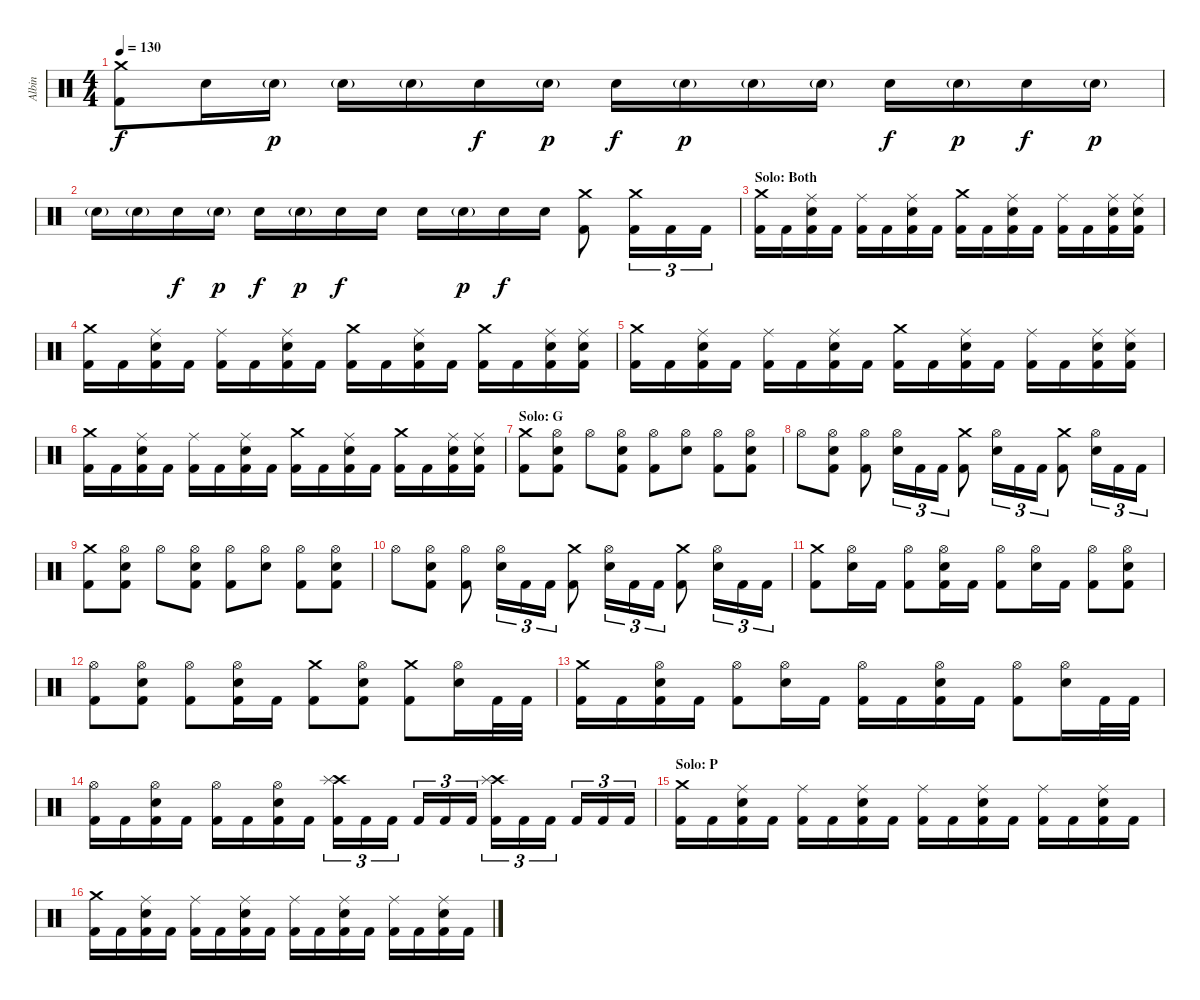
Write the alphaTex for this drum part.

\track ("Albin" "Albin") {instrument percussion}
\staff {score}
\articulation defaults
\ts (4 4)
\tempo 130
\clef neutral
\ks c
("Crash medium (hit)" "Kick (hit) 2").8{dy f} "Electric Snare (hit)".16 "Electric Snare (hit)"{g}.16{dy p} "Electric Snare (hit)"{g}.16 "Electric Snare (hit)"{g}.16 "Electric Snare (hit)".16{dy f} "Electric Snare (hit)"{g}.16{dy p} "Electric Snare (hit)".16{dy f} "Electric Snare (hit)"{g}.16{dy p} "Electric Snare (hit)"{g}.16 "Electric Snare (hit)"{g}.16 "Electric Snare (hit)".16{dy f} "Electric Snare (hit)"{g}.16{dy p} "Electric Snare (hit)".16{dy f} "Electric Snare (hit)"{g}.16{dy p} |
"Electric Snare (hit)"{g}.16 "Electric Snare (hit)"{g}.16 "Electric Snare (hit)".16{dy f} "Electric Snare (hit)"{g}.16{dy p} "Electric Snare (hit)".16{dy f} "Electric Snare (hit)"{g}.16{dy p} "Electric Snare (hit)".16{dy f} "Electric Snare (hit)".16 "Electric Snare (hit)".16 "Electric Snare (hit)"{g}.16{dy p} "Electric Snare (hit)".16{dy f} "Electric Snare (hit)".16 ("Crash medium (hit)" "Kick (hit) 2").8 ("Crash medium (hit)" "Kick (hit) 2").16{tu (3 2)} "Kick (hit) 2".16{tu (3 2)} "Kick (hit) 2".16{tu (3 2)} |
\section ("" "Solo: Both")
("Crash medium (hit)" "Kick (hit) 2").16 "Kick (hit) 2".16 ("Ride (middle)" "Electric Snare (hit)" "Kick (hit) 2").16 "Kick (hit) 2".16 ("Ride (middle)" "Kick (hit) 2").16 "Kick (hit) 2".16 ("Ride (middle)" "Electric Snare (hit)" "Kick (hit) 2").16 "Kick (hit) 2".16 ("Crash medium (hit)" "Kick (hit) 2").16 "Kick (hit) 2".16 ("Ride (middle)" "Electric Snare (hit)" "Kick (hit) 2").16 "Kick (hit) 2".16 ("Ride (middle)" "Kick (hit) 2").16 "Kick (hit) 2".16 ("Ride (middle)" "Electric Snare (hit)" "Kick (hit) 2").16 ("Ride (middle)" "Electric Snare (hit)" "Kick (hit) 2").16 |
("Crash medium (hit)" "Kick (hit) 2").16 "Kick (hit) 2".16 ("Ride (middle)" "Electric Snare (hit)" "Kick (hit) 2").16 "Kick (hit) 2".16 ("Ride (middle)" "Kick (hit) 2").16 "Kick (hit) 2".16 ("Ride (middle)" "Electric Snare (hit)" "Kick (hit) 2").16 "Kick (hit) 2".16 ("Crash medium (hit)" "Kick (hit) 2").16 "Kick (hit) 2".16 ("Ride (middle)" "Electric Snare (hit)" "Kick (hit) 2").16 "Kick (hit) 2".16 ("Crash medium (hit)" "Kick (hit) 2").16 "Kick (hit) 2".16 ("Ride (middle)" "Electric Snare (hit)" "Kick (hit) 2").16 ("Ride (middle)" "Electric Snare (hit)" "Kick (hit) 2").16 |
("Crash medium (hit)" "Kick (hit) 2").16 "Kick (hit) 2".16 ("Ride (middle)" "Electric Snare (hit)" "Kick (hit) 2").16 "Kick (hit) 2".16 ("Ride (middle)" "Kick (hit) 2").16 "Kick (hit) 2".16 ("Ride (middle)" "Electric Snare (hit)" "Kick (hit) 2").16 "Kick (hit) 2".16 ("Crash medium (hit)" "Kick (hit) 2").16 "Kick (hit) 2".16 ("Ride (middle)" "Electric Snare (hit)" "Kick (hit) 2").16 "Kick (hit) 2".16 ("Ride (middle)" "Kick (hit) 2").16 "Kick (hit) 2".16 ("Ride (middle)" "Electric Snare (hit)" "Kick (hit) 2").16 ("Ride (middle)" "Electric Snare (hit)" "Kick (hit) 2").16 |
("Crash medium (hit)" "Kick (hit) 2").16 "Kick (hit) 2".16 ("Ride (middle)" "Electric Snare (hit)" "Kick (hit) 2").16 "Kick (hit) 2".16 ("Ride (middle)" "Kick (hit) 2").16 "Kick (hit) 2".16 ("Ride (middle)" "Electric Snare (hit)" "Kick (hit) 2").16 "Kick (hit) 2".16 ("Crash medium (hit)" "Kick (hit) 2").16 "Kick (hit) 2".16 ("Ride (middle)" "Electric Snare (hit)" "Kick (hit) 2").16 "Kick (hit) 2".16 ("Crash medium (hit)" "Kick (hit) 2").16 "Kick (hit) 2".16 ("Ride (middle)" "Electric Snare (hit)" "Kick (hit) 2").16 ("Ride (middle)" "Electric Snare (hit)" "Kick (hit) 2").16 |
\section ("" "Solo: G")
("Crash medium (hit)" "Kick (hit) 2").8 ("Hi-Hat (open)" "Electric Snare (hit)" "Kick (hit) 2").8 "Hi-Hat (open)".8 ("Hi-Hat (open)" "Electric Snare (hit)" "Kick (hit) 2").8 ("Hi-Hat (open)" "Kick (hit) 2").8 ("Hi-Hat (open)" "Electric Snare (hit)").8 ("Hi-Hat (open)" "Kick (hit) 2").8 ("Hi-Hat (open)" "Electric Snare (hit)" "Kick (hit) 2").8 |
"Hi-Hat (open)".8 ("Hi-Hat (open)" "Electric Snare (hit)" "Kick (hit) 2").8 ("Hi-Hat (open)" "Kick (hit) 2").8 ("Hi-Hat (open)" "Electric Snare (hit)").16{tu (3 2)} "Kick (hit) 2".16{tu (3 2)} "Kick (hit) 2".16{tu (3 2)} ("Crash medium (hit)" "Kick (hit) 2").8 ("Hi-Hat (open)" "Electric Snare (hit)").16{tu (3 2)} "Kick (hit) 2".16{tu (3 2)} "Kick (hit) 2".16{tu (3 2)} ("Crash medium (hit)" "Kick (hit) 2").8 ("Hi-Hat (open)" "Electric Snare (hit)").16{tu (3 2)} "Kick (hit) 2".16{tu (3 2)} "Kick (hit) 2".16{tu (3 2)} |
("Crash medium (hit)" "Kick (hit) 2").8 ("Hi-Hat (open)" "Electric Snare (hit)" "Kick (hit) 2").8 "Hi-Hat (open)".8 ("Hi-Hat (open)" "Electric Snare (hit)" "Kick (hit) 2").8 ("Hi-Hat (open)" "Kick (hit) 2").8 ("Hi-Hat (open)" "Electric Snare (hit)").8 ("Hi-Hat (open)" "Kick (hit) 2").8 ("Hi-Hat (open)" "Electric Snare (hit)" "Kick (hit) 2").8 |
"Hi-Hat (open)".8 ("Hi-Hat (open)" "Electric Snare (hit)" "Kick (hit) 2").8 ("Hi-Hat (open)" "Kick (hit) 2").8 ("Hi-Hat (open)" "Electric Snare (hit)").16{tu (3 2)} "Kick (hit) 2".16{tu (3 2)} "Kick (hit) 2".16{tu (3 2)} ("Crash medium (hit)" "Kick (hit) 2").8 ("Hi-Hat (open)" "Electric Snare (hit)").16{tu (3 2)} "Kick (hit) 2".16{tu (3 2)} "Kick (hit) 2".16{tu (3 2)} ("Crash medium (hit)" "Kick (hit) 2").8 ("Hi-Hat (open)" "Electric Snare (hit)").16{tu (3 2)} "Kick (hit) 2".16{tu (3 2)} "Kick (hit) 2".16{tu (3 2)} |
("Crash medium (hit)" "Kick (hit) 2").8 ("Hi-Hat (open)" "Electric Snare (hit)").16 "Kick (hit) 2".16 ("Hi-Hat (open)" "Kick (hit) 2").8 ("Hi-Hat (open)" "Electric Snare (hit)" "Kick (hit) 2").16 "Kick (hit) 2".16 ("Hi-Hat (open)" "Kick (hit) 2").8 ("Hi-Hat (open)" "Electric Snare (hit)").16 "Kick (hit) 2".16 ("Hi-Hat (open)" "Kick (hit) 2").8 ("Hi-Hat (open)" "Electric Snare (hit)" "Kick (hit) 2").8 |
("Hi-Hat (open)" "Kick (hit) 2").8 ("Hi-Hat (open)" "Electric Snare (hit)" "Kick (hit) 2").8 ("Hi-Hat (open)" "Kick (hit) 2").8 ("Hi-Hat (open)" "Electric Snare (hit)" "Kick (hit) 2").16 "Kick (hit) 2".16 ("Crash medium (hit)" "Kick (hit) 2").8 ("Hi-Hat (open)" "Electric Snare (hit)" "Kick (hit) 2").8 ("Crash medium (hit)" "Kick (hit) 2").8 ("Hi-Hat (open)" "Electric Snare (hit)").16 "Kick (hit) 2".32 "Kick (hit) 2".32 |
("Crash medium (hit)" "Kick (hit) 2").16 "Kick (hit) 2".16 ("Hi-Hat (open)" "Electric Snare (hit)" "Kick (hit) 2").16 "Kick (hit) 2".16 ("Hi-Hat (open)" "Kick (hit) 2").8 ("Hi-Hat (open)" "Electric Snare (hit)").16 "Kick (hit) 2".16 ("Hi-Hat (open)" "Kick (hit) 2").16 "Kick (hit) 2".16 ("Hi-Hat (open)" "Electric Snare (hit)" "Kick (hit) 2").16 "Kick (hit) 2".16 ("Hi-Hat (open)" "Kick (hit) 2").8 ("Hi-Hat (open)" "Electric Snare (hit)").16 "Kick (hit) 2".32 "Kick (hit) 2".32 |
("Hi-Hat (open)" "Kick (hit) 2").16 "Kick (hit) 2".16 ("Hi-Hat (open)" "Electric Snare (hit)" "Kick (hit) 2").16 "Kick (hit) 2".16 ("Hi-Hat (open)" "Kick (hit) 2").16 "Kick (hit) 2".16 ("Hi-Hat (open)" "Electric Snare (hit)" "Kick (hit) 2").16 "Kick (hit) 2".16 ("Crash high (hit)" "Splash (hit)" "Kick (hit) 2").16{tu (3 2)} "Kick (hit) 2".16{tu (3 2)} "Kick (hit) 2".16{tu (3 2)} "Kick (hit) 2".16{tu (3 2)} "Kick (hit) 2".16{tu (3 2)} "Kick (hit) 2".16{tu (3 2)} ("Crash high (hit)" "Splash (hit)" "Kick (hit) 2").16{tu (3 2)} "Kick (hit) 2".16{tu (3 2)} "Kick (hit) 2".16{tu (3 2)} "Kick (hit) 2".16{tu (3 2)} "Kick (hit) 2".16{tu (3 2)} "Kick (hit) 2".16{tu (3 2)} |
\section ("" "Solo: P")
("Crash medium (hit)" "Kick (hit) 2").16 "Kick (hit) 2".16 ("Ride (middle)" "Electric Snare (hit)" "Kick (hit) 2").16 "Kick (hit) 2".16 ("Ride (middle)" "Kick (hit) 2").16 "Kick (hit) 2".16 ("Ride (middle)" "Electric Snare (hit)" "Kick (hit) 2").16 "Kick (hit) 2".16 ("Ride (middle)" "Kick (hit) 2").16 "Kick (hit) 2".16 ("Ride (middle)" "Electric Snare (hit)" "Kick (hit) 2").16 "Kick (hit) 2".16 ("Ride (middle)" "Kick (hit) 2").16 "Kick (hit) 2".16 ("Ride (middle)" "Electric Snare (hit)" "Kick (hit) 2").16 "Kick (hit) 2".16 |
("Crash medium (hit)" "Kick (hit) 2").16 "Kick (hit) 2".16 ("Ride (middle)" "Electric Snare (hit)" "Kick (hit) 2").16 "Kick (hit) 2".16 ("Ride (middle)" "Kick (hit) 2").16 "Kick (hit) 2".16 ("Ride (middle)" "Electric Snare (hit)" "Kick (hit) 2").16 "Kick (hit) 2".16 ("Ride (middle)" "Kick (hit) 2").16 "Kick (hit) 2".16 ("Ride (middle)" "Electric Snare (hit)" "Kick (hit) 2").16 "Kick (hit) 2".16 ("Ride (middle)" "Kick (hit) 2").16 "Kick (hit) 2".16 ("Ride (middle)" "Electric Snare (hit)" "Kick (hit) 2").16 "Kick (hit) 2".16
